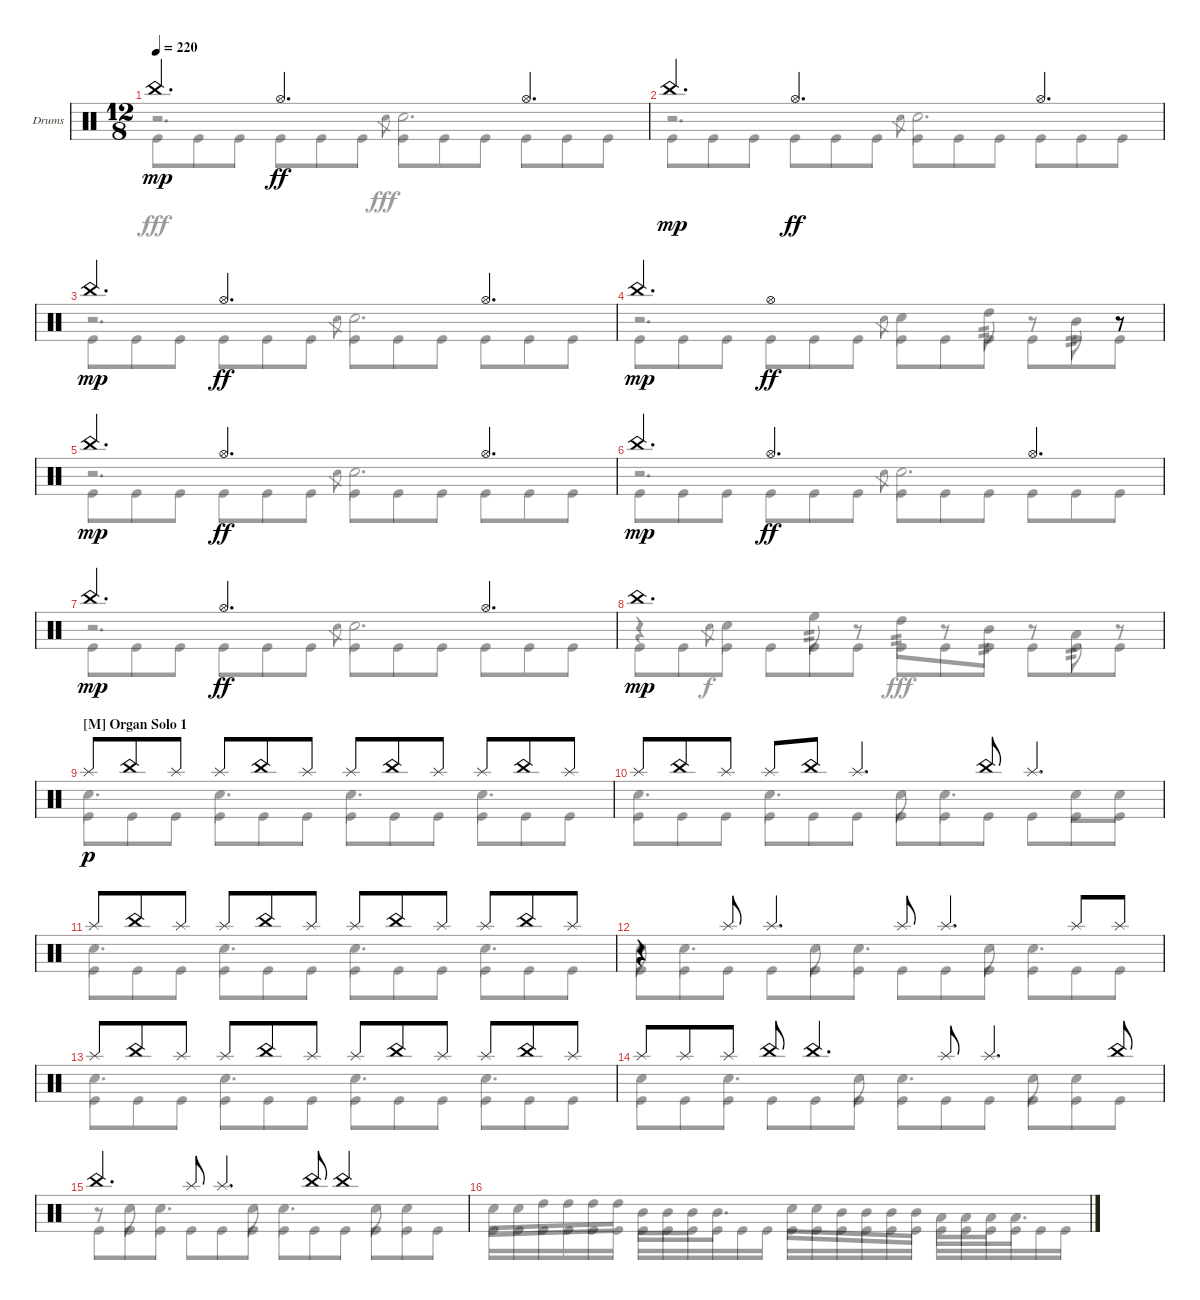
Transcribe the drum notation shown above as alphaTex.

\defaultSystemsLayout 4
\bracketExtendMode groupsimilarinstruments
\firstSystemTrackNameOrientation horizontal
\otherSystemsTrackNameOrientation horizontal
\track ("Drumkit" "Drums") {instrument percussion}
\staff {score}
\articulation defaults
\voice
\ts (12 8)
\tempo 220
\clef neutral
\ks c "China (hit)".4{d dy mp} "Hi-Hat (open)".2{d dy ff} "Hi-Hat (open)".4{d}
|
"China (hit)".4{d dy mp} "Hi-Hat (open)".2{d dy ff} "Hi-Hat (open)".4{d} |
"China (hit)".4{d dy mp} "Hi-Hat (open)".2{d dy ff} "Hi-Hat (open)".4{d} |
"China (hit)".4{d dy mp} "Hi-Hat (open)".1{dy ff} r.8 |
"China (hit)".4{d dy mp} "Hi-Hat (open)".2{d dy ff} "Hi-Hat (open)".4{d} |
"China (hit)".4{d dy mp} "Hi-Hat (open)".2{d dy ff} "Hi-Hat (open)".4{d} |
"China (hit)".4{d dy mp} "Hi-Hat (open)".2{d dy ff} "Hi-Hat (open)".4{d} |
"China (hit)".1{d dy mp} |
\section ("M" "Organ Solo 1")
"Splash (hit)".8{dy p} "China (hit)".8 "Splash (hit)".8 "Splash (hit)".8 "China (hit)".8 "Splash (hit)".8 "Splash (hit)".8 "China (hit)".8 "Splash (hit)".8 "Splash (hit)".8 "China (hit)".8 "Splash (hit)".8 |
"Splash (hit)".8 "China (hit)".8 "Splash (hit)".8 "Splash (hit)".8 "China (hit)".8 "Splash (hit)".4{d} "China (hit)".8 "Splash (hit)".4{d} |
"Splash (hit)".8 "China (hit)".8 "Splash (hit)".8 "Splash (hit)".8 "China (hit)".8 "Splash (hit)".8 "Splash (hit)".8 "China (hit)".8 "Splash (hit)".8 "Splash (hit)".8 "China (hit)".8 "Splash (hit)".8 |
r.4 "Splash (hit)".8 "Splash (hit)".4{d} "Splash (hit)".8 "Splash (hit)".4{d} "Splash (hit)".8 "Splash (hit)".8 |
"Splash (hit)".8 "China (hit)".8 "Splash (hit)".8 "Splash (hit)".8 "China (hit)".8 "Splash (hit)".8 "Splash (hit)".8 "China (hit)".8 "Splash (hit)".8 "Splash (hit)".8 "China (hit)".8 "Splash (hit)".8 |
"Splash (hit)".8 "Splash (hit)".8 "Splash (hit)".8 "China (hit)".8 "China (hit)".4{d} "Splash (hit)".8 "Splash (hit)".4{d} "China (hit)".8 |
"China (hit)".4{d} "Splash (hit)".8 "Splash (hit)".4{d} "China (hit)".8 "China (hit)".2 |
\voice
\clef neutral
\ottava regular
\simile none
\ks c
r.2{d dy fff} "Snare (hit) 2".8{gr} "Snare (hit) 2".2{d} |
r.2{d} "Snare (hit) 2".8{gr} "Snare (hit) 2".2{d} |
r.2{d} "Snare (hit) 2".8{gr} "Snare (hit) 2".2{d} |
r.2{d} "Snare (hit) 2".8{gr} "Snare (hit) 2".4 "High Tom (hit)".8{tp 2} r.8 "Mid Tom (hit)".8{tp 2} r.8 |
r.2{d} "Snare (hit) 2".8{gr} "Snare (hit) 2".2{d} |
r.2{d} "Snare (hit) 2".8{gr} "Snare (hit) 2".2{d} |
r.2{d} "Snare (hit) 2".8{gr} "Snare (hit) 2".2{d} |
r.4 "Snare (hit) 2".8{gr dy f} "Snare (hit) 2".4 "High Floor Tom (hit)".8{tp 2} r.8 "High Tom (hit)".8{tp 2 dy fff} r.8 "Mid Tom (hit)".8{tp 2} r.8 "Low Tom (hit)".8{tp 2} r.8 |
"Snare (hit) 2".4{d} "Snare (hit) 2".4{d} "Snare (hit) 2".4{d} "Snare (hit) 2".4{d} |
"Snare (hit) 2".4{d} "Snare (hit) 2".4{d} "Snare (hit) 2".8 "Snare (hit) 2".4{d} "Snare (hit) 2".8 "Snare (hit) 2".8 |
"Snare (hit) 2".4{d} "Snare (hit) 2".4{d} "Snare (hit) 2".4{d} "Snare (hit) 2".4{d} |
"Snare (hit) 2".8 "Snare (hit) 2".4{d} "Snare (hit) 2".8 "Snare (hit) 2".4{d} "Snare (hit) 2".8 "Snare (hit) 2".4{d} |
"Snare (hit) 2".4{d} "Snare (hit) 2".4{d} "Snare (hit) 2".4{d} "Snare (hit) 2".4{d} |
"Snare (hit) 2".4 "Snare (hit) 2".4{d} "Snare (hit) 2".8 "Snare (hit) 2".4{d} "Snare (hit) 2".8 "Snare (hit) 2".4 |
r.8 "Snare (hit) 2".8 "Snare (hit) 2".4{d} "Snare (hit) 2".8 "Snare (hit) 2".4{d} "Snare (hit) 2".8 "Snare (hit) 2".4 |
"Snare (hit) 2".16 "Snare (hit) 2".16 "High Tom (hit)".16 "High Tom (hit)".16 "High Tom (hit)".16 "High Tom (hit)".16 "Mid Tom (hit)".16 "Mid Tom (hit)".16 "Mid Tom (hit)".16 "Mid Tom (hit)".8{d} "Snare (hit) 2".16 "Snare (hit) 2".16 "Mid Tom (hit)".16 "Mid Tom (hit)".16 "Mid Tom (hit)".16 "Mid Tom (hit)".16 "Low Tom (hit)".16 "Low Tom (hit)".16 "Low Tom (hit)".16 "Low Tom (hit)".8{d}
\voice
\clef neutral
\ottava regular
\simile none
\ks c "Kick (hit)".8{dy fff} "Kick (hit)".8 "Kick (hit)".8 "Kick (hit)".8 "Kick (hit)".8 "Kick (hit)".8 "Kick (hit)".8 "Kick (hit)".8 "Kick (hit)".8 "Kick (hit)".8 "Kick (hit)".8 "Kick (hit)".8
|
"Kick (hit)".8 "Kick (hit)".8 "Kick (hit)".8 "Kick (hit)".8 "Kick (hit)".8 "Kick (hit)".8 "Kick (hit)".8 "Kick (hit)".8 "Kick (hit)".8 "Kick (hit)".8 "Kick (hit)".8 "Kick (hit)".8 |
"Kick (hit)".8 "Kick (hit)".8 "Kick (hit)".8 "Kick (hit)".8 "Kick (hit)".8 "Kick (hit)".8 "Kick (hit)".8 "Kick (hit)".8 "Kick (hit)".8 "Kick (hit)".8 "Kick (hit)".8 "Kick (hit)".8 |
"Kick (hit)".8 "Kick (hit)".8 "Kick (hit)".8 "Kick (hit)".8 "Kick (hit)".8 "Kick (hit)".8 "Kick (hit)".8 "Kick (hit)".8 "Kick (hit)".8 "Kick (hit)".8 "Kick (hit)".8 "Kick (hit)".8 |
"Kick (hit)".8 "Kick (hit)".8 "Kick (hit)".8 "Kick (hit)".8 "Kick (hit)".8 "Kick (hit)".8 "Kick (hit)".8 "Kick (hit)".8 "Kick (hit)".8 "Kick (hit)".8 "Kick (hit)".8 "Kick (hit)".8 |
"Kick (hit)".8 "Kick (hit)".8 "Kick (hit)".8 "Kick (hit)".8 "Kick (hit)".8 "Kick (hit)".8 "Kick (hit)".8 "Kick (hit)".8 "Kick (hit)".8 "Kick (hit)".8 "Kick (hit)".8 "Kick (hit)".8 |
"Kick (hit)".8 "Kick (hit)".8 "Kick (hit)".8 "Kick (hit)".8 "Kick (hit)".8 "Kick (hit)".8 "Kick (hit)".8 "Kick (hit)".8 "Kick (hit)".8 "Kick (hit)".8 "Kick (hit)".8 "Kick (hit)".8 |
"Kick (hit)".8 "Kick (hit)".8 "Kick (hit)".8 "Kick (hit)".8 "Kick (hit)".8 "Kick (hit)".8 "Kick (hit)".8 "Kick (hit)".8 "Kick (hit)".8 "Kick (hit)".8 "Kick (hit)".8 "Kick (hit)".8 |
"Kick (hit)".8 "Kick (hit)".8 "Kick (hit)".8 "Kick (hit)".8 "Kick (hit)".8 "Kick (hit)".8 "Kick (hit)".8 "Kick (hit)".8 "Kick (hit)".8 "Kick (hit)".8 "Kick (hit)".8 "Kick (hit)".8 |
"Kick (hit)".8 "Kick (hit)".8 "Kick (hit)".8 "Kick (hit)".8 "Kick (hit)".8 "Kick (hit)".8 "Kick (hit)".8 "Kick (hit)".8 "Kick (hit)".8 "Kick (hit)".8 "Kick (hit)".8 "Kick (hit)".8 |
"Kick (hit)".8 "Kick (hit)".8 "Kick (hit)".8 "Kick (hit)".8 "Kick (hit)".8 "Kick (hit)".8 "Kick (hit)".8 "Kick (hit)".8 "Kick (hit)".8 "Kick (hit)".8 "Kick (hit)".8 "Kick (hit)".8 |
"Kick (hit)".8 "Kick (hit)".8 "Kick (hit)".8 "Kick (hit)".8 "Kick (hit)".8 "Kick (hit)".8 "Kick (hit)".8 "Kick (hit)".8 "Kick (hit)".8 "Kick (hit)".8 "Kick (hit)".8 "Kick (hit)".8 |
"Kick (hit)".8 "Kick (hit)".8 "Kick (hit)".8 "Kick (hit)".8 "Kick (hit)".8 "Kick (hit)".8 "Kick (hit)".8 "Kick (hit)".8 "Kick (hit)".8 "Kick (hit)".8 "Kick (hit)".8 "Kick (hit)".8 |
"Kick (hit)".8 "Kick (hit)".8 "Kick (hit)".8 "Kick (hit)".8 "Kick (hit)".8 "Kick (hit)".8 "Kick (hit)".8 "Kick (hit)".8 "Kick (hit)".8 "Kick (hit)".8 "Kick (hit)".8 "Kick (hit)".8 |
"Kick (hit)".8 "Kick (hit)".8 "Kick (hit)".8 "Kick (hit)".8 "Kick (hit)".8 "Kick (hit)".8 "Kick (hit)".8 "Kick (hit)".8 "Kick (hit)".8 "Kick (hit)".8 "Kick (hit)".8 "Kick (hit)".8 |
"Kick (hit)".16 "Kick (hit)".16 "Kick (hit)".16 "Kick (hit)".16 "Kick (hit)".16 "Kick (hit)".16 "Kick (hit)".16 "Kick (hit)".16 "Kick (hit)".16 "Kick (hit)".16 "Kick (hit)".16 "Kick (hit)".16 "Kick (hit)".16 "Kick (hit)".16 "Kick (hit)".16 "Kick (hit)".16 "Kick (hit)".16 "Kick (hit)".16 "Kick (hit)".16 "Kick (hit)".16 "Kick (hit)".16 "Kick (hit)".16 "Kick (hit)".16 "Kick (hit)".16
